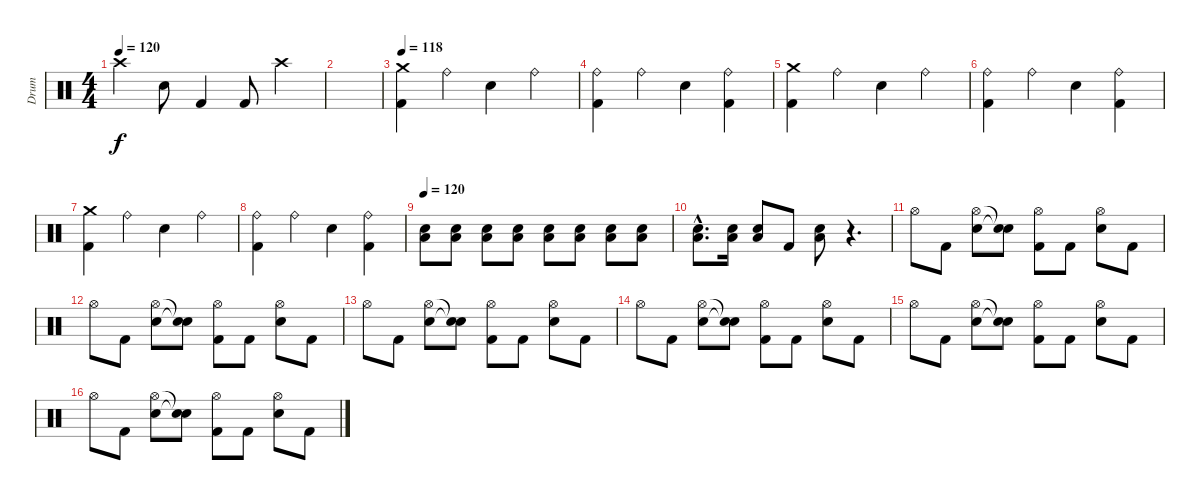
\track ("Drum" "Drum") {instrument percussion}
\staff {score}
\articulation defaults
\ts (4 4)
\tempo 120
\clef neutral
\ks c "Crash high (hit)".4{dy f} "Electric Snare (hit)".8 "Kick (hit) 2".4 "Kick (hit) 2".8 "Crash high (hit)".4
|
|
\tempo 118
("Crash medium (hit)" "Kick (hit) 2").4 "Ride (bell)".4 "Electric Snare (hit)".4 "Ride (bell)".4 |
("Ride (bell)" "Kick (hit) 2").4 "Ride (bell)".4 "Electric Snare (hit)".4 ("Ride (bell)" "Kick (hit) 2").4 |
("Crash medium (hit)" "Kick (hit) 2").4 "Ride (bell)".4 "Electric Snare (hit)".4 "Ride (bell)".4 |
("Ride (bell)" "Kick (hit) 2").4 "Ride (bell)".4 "Electric Snare (hit)".4 ("Ride (bell)" "Kick (hit) 2").4 |
("Crash medium (hit)" "Kick (hit) 2").4 "Ride (bell)".4 "Electric Snare (hit)".4 "Ride (bell)".4 |
("Ride (bell)" "Kick (hit) 2").4 "Ride (bell)".4 "Electric Snare (hit)".4 ("Ride (bell)" "Kick (hit) 2").4 |
\tempo 120
("Electric Snare (hit)" "Low Floor Tom (hit)").8 ("Electric Snare (hit)" "Low Floor Tom (hit)").8 ("Electric Snare (hit)" "Low Floor Tom (hit)").8 ("Electric Snare (hit)" "Low Floor Tom (hit)").8 ("Electric Snare (hit)" "Low Floor Tom (hit)").8 ("Electric Snare (hit)" "Low Floor Tom (hit)").8 ("Electric Snare (hit)" "Low Floor Tom (hit)").8 ("Electric Snare (hit)" "Low Floor Tom (hit)").8 |
("Electric Snare (hit)"{hac} "Low Floor Tom (hit)"{hac}).8{d} ("Electric Snare (hit)" "Low Floor Tom (hit)").16 ("Electric Snare (hit)" "Low Floor Tom (hit)").8 "Kick (hit) 2".8 ("Electric Snare (hit)" "Low Floor Tom (hit)").8 r.4{d} |
"Hi-Hat (open)".8 "Kick (hit) 2".8 ("Hi-Hat (open)" "Electric Snare (hit)").8 ("Snare (hit)"{t} "Snare (hit)"{t}).8 ("Hi-Hat (open)" "Kick (hit) 2").8 "Kick (hit) 2".8 ("Hi-Hat (open)" "Electric Snare (hit)").8 "Kick (hit) 2".8 |
"Hi-Hat (open)".8 "Kick (hit) 2".8 ("Hi-Hat (open)" "Electric Snare (hit)").8 ("Snare (hit)"{t} "Snare (hit)"{t}).8 ("Hi-Hat (open)" "Kick (hit) 2").8 "Kick (hit) 2".8 ("Hi-Hat (open)" "Electric Snare (hit)").8 "Kick (hit) 2".8 |
"Hi-Hat (open)".8 "Kick (hit) 2".8 ("Hi-Hat (open)" "Electric Snare (hit)").8 ("Snare (hit)"{t} "Snare (hit)"{t}).8 ("Hi-Hat (open)" "Kick (hit) 2").8 "Kick (hit) 2".8 ("Hi-Hat (open)" "Electric Snare (hit)").8 "Kick (hit) 2".8 |
"Hi-Hat (open)".8 "Kick (hit) 2".8 ("Hi-Hat (open)" "Electric Snare (hit)").8 ("Snare (hit)"{t} "Snare (hit)"{t}).8 ("Hi-Hat (open)" "Kick (hit) 2").8 "Kick (hit) 2".8 ("Hi-Hat (open)" "Electric Snare (hit)").8 "Kick (hit) 2".8 |
"Hi-Hat (open)".8 "Kick (hit) 2".8 ("Hi-Hat (open)" "Electric Snare (hit)").8 ("Snare (hit)"{t} "Snare (hit)"{t}).8 ("Hi-Hat (open)" "Kick (hit) 2").8 "Kick (hit) 2".8 ("Hi-Hat (open)" "Electric Snare (hit)").8 "Kick (hit) 2".8 |
"Hi-Hat (open)".8 "Kick (hit) 2".8 ("Hi-Hat (open)" "Electric Snare (hit)").8 ("Snare (hit)"{t} "Snare (hit)"{t}).8 ("Hi-Hat (open)" "Kick (hit) 2").8 "Kick (hit) 2".8 ("Hi-Hat (open)" "Electric Snare (hit)").8 "Kick (hit) 2".8
